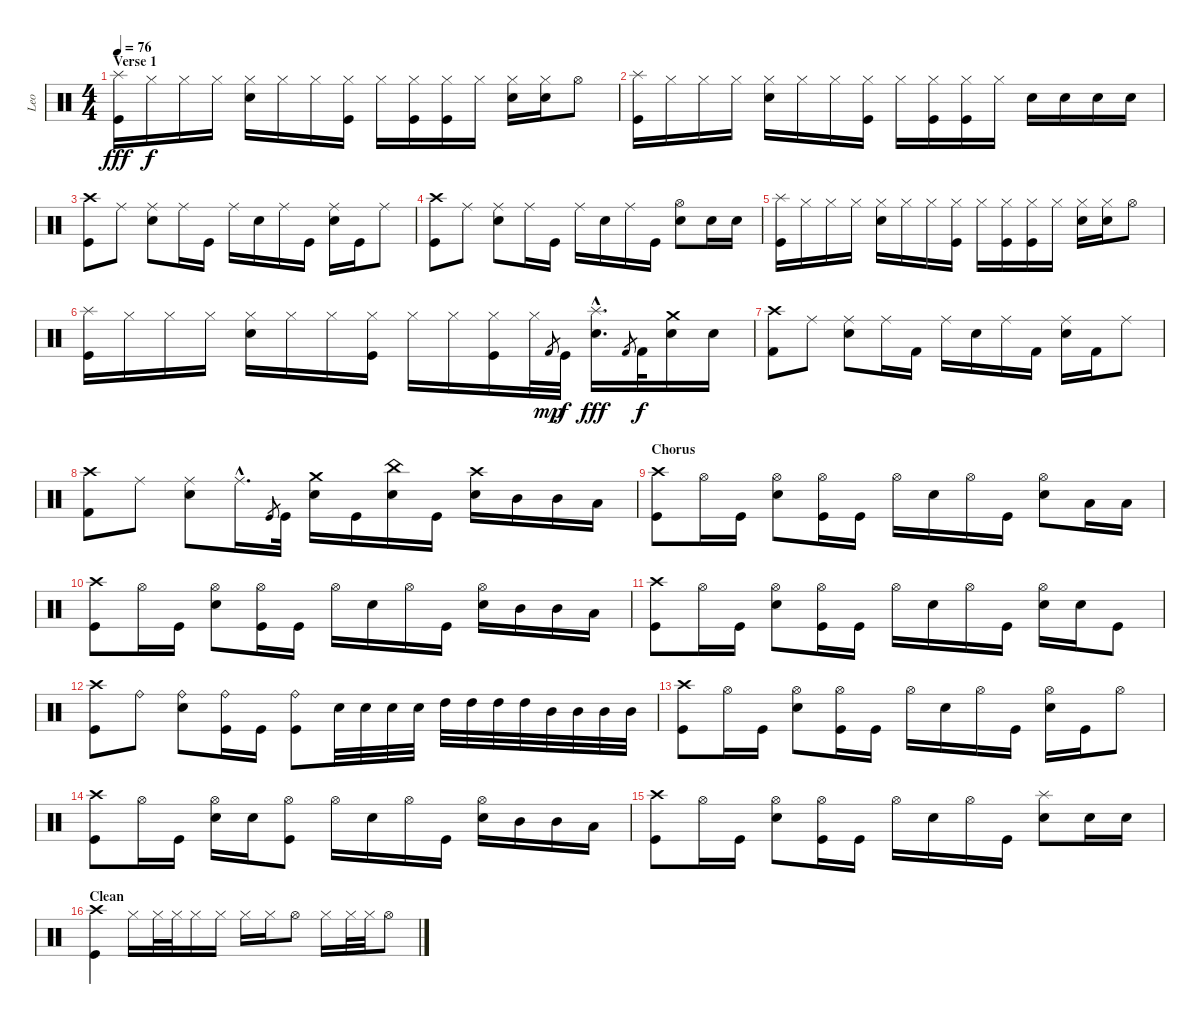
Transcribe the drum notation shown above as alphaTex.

\track ("Leo" "Leo") {instrument percussion}
\staff {score}
\articulation defaults
\ts (4 4)
\section ("" "Verse 1")
\tempo 76
\clef neutral
\ks c
("Splash (hit)" "Kick (hit)").16{dy fff} "Hi-Hat (closed)".16{dy f} "Hi-Hat (closed)".16 "Hi-Hat (closed)".16 ("Hi-Hat (closed)" "Electric Snare (hit)").16 "Hi-Hat (closed)".16 "Hi-Hat (closed)".16 ("Hi-Hat (closed)" "Kick (hit)").16 "Hi-Hat (closed)".16 ("Hi-Hat (closed)" "Kick (hit)").16 ("Hi-Hat (closed)" "Kick (hit)").16 "Hi-Hat (closed)".16 ("Hi-Hat (closed)" "Electric Snare (hit)").16 ("Hi-Hat (closed)" "Electric Snare (hit)").16 "Hi-Hat (open)".8 |
("Splash (hit)" "Kick (hit)").16 "Hi-Hat (closed)".16 "Hi-Hat (closed)".16 "Hi-Hat (closed)".16 ("Hi-Hat (closed)" "Electric Snare (hit)").16 "Hi-Hat (closed)".16 "Hi-Hat (closed)".16 ("Hi-Hat (closed)" "Kick (hit)").16 "Hi-Hat (closed)".16 ("Hi-Hat (closed)" "Kick (hit)").16 ("Hi-Hat (closed)" "Kick (hit)").16 "Hi-Hat (closed)".16 "Electric Snare (hit)".16 "Electric Snare (hit)".16 "Electric Snare (hit)".16 "Electric Snare (hit)".16 |
("Crash high (hit)" "Kick (hit)").8 "Ride (middle)".8 ("Ride (middle)" "Electric Snare (hit)").8 "Ride (middle)".16 "Kick (hit)".16 "Ride (middle)".16 "Electric Snare (hit)".16 "Ride (middle)".16 "Kick (hit)".16 ("Ride (middle)" "Electric Snare (hit)").16 "Kick (hit)".16 "Ride (middle)".8 |
("Crash high (hit)" "Kick (hit)").8 "Ride (middle)".8 ("Ride (middle)" "Electric Snare (hit)").8 "Ride (middle)".16 "Kick (hit)".16 "Ride (middle)".16 "Electric Snare (hit)".16 "Ride (middle)".16 "Kick (hit)".16 ("Hi-Hat (open)" "Electric Snare (hit)").8 "Electric Snare (hit)".16 "Electric Snare (hit)".16 |
("Splash (hit)" "Kick (hit)").16 "Hi-Hat (closed)".16 "Hi-Hat (closed)".16 "Hi-Hat (closed)".16 ("Hi-Hat (closed)" "Electric Snare (hit)").16 "Hi-Hat (closed)".16 "Hi-Hat (closed)".16 ("Hi-Hat (closed)" "Kick (hit)").16 "Hi-Hat (closed)".16 ("Hi-Hat (closed)" "Kick (hit)").16 ("Hi-Hat (closed)" "Kick (hit)").16 "Hi-Hat (closed)".16 ("Hi-Hat (closed)" "Electric Snare (hit)").16 ("Hi-Hat (closed)" "Electric Snare (hit)").16 "Hi-Hat (open)".8 |
("Splash (hit)" "Kick (hit)").16 "Hi-Hat (closed)".16 "Hi-Hat (closed)".16 "Hi-Hat (closed)".16 ("Hi-Hat (closed)" "Electric Snare (hit)").16 "Hi-Hat (closed)".16 "Hi-Hat (closed)".16 ("Hi-Hat (closed)" "Kick (hit)").16 "Hi-Hat (closed)".16 "Hi-Hat (closed)".16 ("Hi-Hat (closed)" "Kick (hit)").16 "Hi-Hat (closed)".32 "Kick (hit) 2".8{gr dy mp} "Kick (hit)".32{dy f} ("Splash (hit)"{hac} "Electric Snare (hit)").16{d dy fff} "Kick (hit) 2".8{gr} "Kick (hit) 2".32{dy f} ("Crash medium (hit)" "Electric Snare (hit)").16 "Electric Snare (hit)".16 |
("Crash high (hit)" "Kick (hit) 2").8 "Ride (middle)".8 ("Ride (middle)" "Electric Snare (hit)").8 "Ride (middle)".16 "Kick (hit) 2".16 "Ride (middle)".16 "Electric Snare (hit)".16 "Ride (middle)".16 "Kick (hit) 2".16 ("Ride (middle)" "Electric Snare (hit)").16 "Kick (hit) 2".16 "Ride (middle)".8 |
("Crash high (hit)" "Kick (hit) 2").8 "Ride (middle)".8 ("Ride (middle)" "Electric Snare (hit)").8 "Ride (middle)"{hac}.16{d} "Kick (hit)".8{gr} "Kick (hit)".32 ("Crash medium (hit)" "Electric Snare (hit)").16 "Kick (hit)".16 ("China (hit)" "Electric Snare (hit)").16 "Kick (hit)".16 ("Crash high (hit)" "Electric Snare (hit)").16 "Mid Tom (hit)".16 "Mid Tom (hit)".16 "Low Tom (hit)".16 |
\section ("" "Chorus")
("Crash high (hit)" "Kick (hit)").8 "Hi-Hat (open)".16 "Kick (hit)".16 ("Hi-Hat (open)" "Electric Snare (hit)").8 ("Hi-Hat (open)" "Kick (hit)").16 "Kick (hit)".16 "Hi-Hat (open)".16 "Electric Snare (hit)".16 "Hi-Hat (open)".16 "Kick (hit)".16 ("Hi-Hat (open)" "Electric Snare (hit)").8 "Low Tom (hit)".16 "Low Tom (hit)".16 |
("Crash high (hit)" "Kick (hit)").8 "Hi-Hat (open)".16 "Kick (hit)".16 ("Hi-Hat (open)" "Electric Snare (hit)").8 ("Hi-Hat (open)" "Kick (hit)").16 "Kick (hit)".16 "Hi-Hat (open)".16 "Electric Snare (hit)".16 "Hi-Hat (open)".16 "Kick (hit)".16 ("Hi-Hat (open)" "Electric Snare (hit)").16 "Mid Tom (hit)".16 "Mid Tom (hit)".16 "Low Tom (hit)".16 |
("Crash high (hit)" "Kick (hit)").8 "Hi-Hat (open)".16 "Kick (hit)".16 ("Hi-Hat (open)" "Electric Snare (hit)").8 ("Hi-Hat (open)" "Kick (hit)").16 "Kick (hit)".16 "Hi-Hat (open)".16 "Electric Snare (hit)".16 "Hi-Hat (open)".16 "Kick (hit)".16 ("Hi-Hat (open)" "Electric Snare (hit)").16 "Electric Snare (hit)".16 "Kick (hit)".8 |
("Crash high (hit)" "Kick (hit)").8 "Ride (bell)".8 ("Ride (bell)" "Electric Snare (hit)").8 ("Ride (bell)" "Kick (hit)").16 "Kick (hit)".16 ("Ride (bell)" "Kick (hit)").8 "Electric Snare (hit)".32 "Electric Snare (hit)".32 "Electric Snare (hit)".32 "Electric Snare (hit)".32 "High Tom (hit)".32 "High Tom (hit)".32 "High Tom (hit)".32 "High Tom (hit)".32 "Mid Tom (hit)".32 "Mid Tom (hit)".32 "Mid Tom (hit)".32 "Mid Tom (hit)".32 |
("Crash high (hit)" "Kick (hit)").8 "Hi-Hat (open)".16 "Kick (hit)".16 ("Hi-Hat (open)" "Electric Snare (hit)").8 ("Hi-Hat (open)" "Kick (hit)").16 "Kick (hit)".16 "Hi-Hat (open)".16 "Electric Snare (hit)".16 "Hi-Hat (open)".16 "Kick (hit)".16 ("Hi-Hat (open)" "Electric Snare (hit)").16 "Kick (hit)".16 "Hi-Hat (open)".8 |
("Crash high (hit)" "Kick (hit)").8 "Hi-Hat (open)".16 "Kick (hit)".16 ("Hi-Hat (open)" "Electric Snare (hit)").16 "Electric Snare (hit)".16 ("Hi-Hat (open)" "Kick (hit)").8 "Hi-Hat (open)".16 "Electric Snare (hit)".16 "Hi-Hat (open)".16 "Kick (hit)".16 ("Hi-Hat (open)" "Electric Snare (hit)").16 "Mid Tom (hit)".16 "Mid Tom (hit)".16 "Low Tom (hit)".16 |
("Crash high (hit)" "Kick (hit)").8 "Hi-Hat (open)".16 "Kick (hit)".16 ("Hi-Hat (open)" "Electric Snare (hit)").8 ("Hi-Hat (open)" "Kick (hit)").16 "Kick (hit)".16 "Hi-Hat (open)".16 "Electric Snare (hit)".16 "Hi-Hat (open)".16 "Kick (hit)".16 ("Splash (hit)" "Electric Snare (hit)").8 "Electric Snare (hit)".16 "Electric Snare (hit)".16 |
\section ("" "Clean")
("Crash high (hit)" "Kick (hit)").4 "Hi-Hat (closed)".16 "Hi-Hat (closed)".32 "Hi-Hat (closed)".32 "Hi-Hat (closed)".16 "Hi-Hat (closed)".16 "Hi-Hat (closed)".16 "Hi-Hat (closed)".16 "Hi-Hat (open)".8 "Hi-Hat (closed)".16 "Hi-Hat (closed)".32 "Hi-Hat (closed)".32 "Hi-Hat (open)".8
